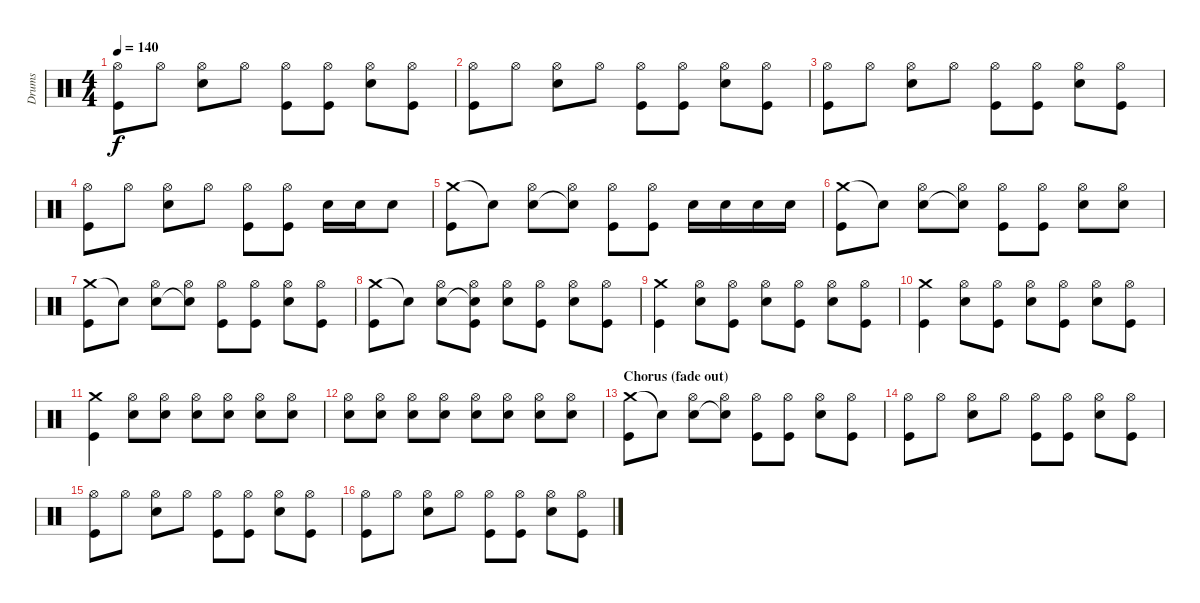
\track ("Drums" "Drums") {instrument percussion}
\staff {score}
\articulation defaults
\ts (4 4)
\tempo 140
\clef neutral
\ks c
("Hi-Hat (open)" "Kick (hit)").8{dy f} "Hi-Hat (open)".8 ("Hi-Hat (open)" "Snare (hit) 2").8 "Hi-Hat (open)".8 ("Hi-Hat (open)" "Kick (hit)").8 ("Hi-Hat (open)" "Kick (hit)").8 ("Hi-Hat (open)" "Snare (hit) 2").8 ("Hi-Hat (open)" "Kick (hit)").8 |
("Hi-Hat (open)" "Kick (hit)").8 "Hi-Hat (open)".8 ("Hi-Hat (open)" "Snare (hit) 2").8 "Hi-Hat (open)".8 ("Hi-Hat (open)" "Kick (hit)").8 ("Hi-Hat (open)" "Kick (hit)").8 ("Hi-Hat (open)" "Snare (hit) 2").8 ("Hi-Hat (open)" "Kick (hit)").8 |
("Hi-Hat (open)" "Kick (hit)").8 "Hi-Hat (open)".8 ("Hi-Hat (open)" "Snare (hit) 2").8 "Hi-Hat (open)".8 ("Hi-Hat (open)" "Kick (hit)").8 ("Hi-Hat (open)" "Kick (hit)").8 ("Hi-Hat (open)" "Snare (hit) 2").8 ("Hi-Hat (open)" "Kick (hit)").8 |
("Hi-Hat (open)" "Kick (hit)").8 "Hi-Hat (open)".8 ("Hi-Hat (open)" "Snare (hit) 2").8 "Hi-Hat (open)".8 ("Hi-Hat (open)" "Kick (hit)").8 ("Hi-Hat (open)" "Kick (hit)").8 "Snare (hit) 2".16 "Snare (hit) 2".16 "Snare (hit) 2".8 |
("Crash medium (hit)" "Kick (hit)").8 "Snare (hit)"{t}.8 ("Hi-Hat (open)" "Snare (hit) 2").8 ("Hi-Hat (open)" "Snare (hit)"{t}).8 ("Hi-Hat (open)" "Kick (hit)").8 ("Hi-Hat (open)" "Kick (hit)").8 "Snare (hit) 2".16 "Snare (hit) 2".16 "Snare (hit) 2".16 "Snare (hit) 2".16 |
("Crash medium (hit)" "Kick (hit)").8 "Snare (hit)"{t}.8 ("Hi-Hat (open)" "Snare (hit) 2").8 ("Hi-Hat (open)" "Snare (hit)"{t}).8 ("Hi-Hat (open)" "Kick (hit)").8 ("Hi-Hat (open)" "Kick (hit)").8 ("Hi-Hat (open)" "Snare (hit) 2").8 ("Hi-Hat (open)" "Snare (hit) 2").8 |
("Crash medium (hit)" "Kick (hit)").8 "Snare (hit)"{t}.8 ("Hi-Hat (open)" "Snare (hit) 2").8 ("Hi-Hat (open)" "Snare (hit)"{t}).8 ("Hi-Hat (open)" "Kick (hit)").8 ("Hi-Hat (open)" "Kick (hit)").8 ("Hi-Hat (open)" "Snare (hit) 2").8 ("Hi-Hat (open)" "Kick (hit)").8 |
("Crash medium (hit)" "Kick (hit)").8 "Snare (hit)"{t}.8 ("Hi-Hat (open)" "Snare (hit) 2").8 ("Hi-Hat (open)" "Snare (hit)"{t} "Kick (hit)").8 ("Hi-Hat (open)" "Snare (hit) 2").8 ("Hi-Hat (open)" "Kick (hit)").8 ("Hi-Hat (open)" "Snare (hit) 2").8 ("Hi-Hat (open)" "Kick (hit)").8 |
("Crash medium (hit)" "Kick (hit)").4 ("Hi-Hat (open)" "Snare (hit) 2").8 ("Hi-Hat (open)" "Kick (hit)").8 ("Hi-Hat (open)" "Snare (hit) 2").8 ("Hi-Hat (open)" "Kick (hit)").8 ("Hi-Hat (open)" "Snare (hit) 2").8 ("Hi-Hat (open)" "Kick (hit)").8 |
("Crash medium (hit)" "Kick (hit)").4 ("Hi-Hat (open)" "Snare (hit) 2").8 ("Hi-Hat (open)" "Kick (hit)").8 ("Hi-Hat (open)" "Snare (hit) 2").8 ("Hi-Hat (open)" "Kick (hit)").8 ("Hi-Hat (open)" "Snare (hit) 2").8 ("Hi-Hat (open)" "Kick (hit)").8 |
("Crash medium (hit)" "Kick (hit)").4 ("Hi-Hat (open)" "Snare (hit) 2").8 ("Hi-Hat (open)" "Snare (hit) 2").8 ("Hi-Hat (open)" "Snare (hit) 2").8 ("Hi-Hat (open)" "Snare (hit) 2").8 ("Hi-Hat (open)" "Snare (hit) 2").8 ("Hi-Hat (open)" "Snare (hit) 2").8 |
("Hi-Hat (open)" "Snare (hit) 2").8 ("Hi-Hat (open)" "Snare (hit) 2").8 ("Hi-Hat (open)" "Snare (hit) 2").8 ("Hi-Hat (open)" "Snare (hit) 2").8 ("Hi-Hat (open)" "Snare (hit) 2").8 ("Hi-Hat (open)" "Snare (hit) 2").8 ("Hi-Hat (open)" "Snare (hit) 2").8 ("Hi-Hat (open)" "Snare (hit) 2").8 |
\section ("" "Chorus (fade out)")
("Crash medium (hit)" "Kick (hit)").8 "Snare (hit)"{t}.8 ("Hi-Hat (open)" "Snare (hit) 2").8 ("Hi-Hat (open)" "Snare (hit)"{t}).8 ("Hi-Hat (open)" "Kick (hit)").8 ("Hi-Hat (open)" "Kick (hit)").8 ("Hi-Hat (open)" "Snare (hit) 2").8 ("Hi-Hat (open)" "Kick (hit)").8 |
("Hi-Hat (open)" "Kick (hit)").8 "Hi-Hat (open)".8 ("Hi-Hat (open)" "Snare (hit) 2").8 "Hi-Hat (open)".8 ("Hi-Hat (open)" "Kick (hit)").8 ("Hi-Hat (open)" "Kick (hit)").8 ("Hi-Hat (open)" "Snare (hit) 2").8 ("Hi-Hat (open)" "Kick (hit)").8 |
("Hi-Hat (open)" "Kick (hit)").8 "Hi-Hat (open)".8 ("Hi-Hat (open)" "Snare (hit) 2").8 "Hi-Hat (open)".8 ("Hi-Hat (open)" "Kick (hit)").8 ("Hi-Hat (open)" "Kick (hit)").8 ("Hi-Hat (open)" "Snare (hit) 2").8 ("Hi-Hat (open)" "Kick (hit)").8 |
("Hi-Hat (open)" "Kick (hit)").8 "Hi-Hat (open)".8 ("Hi-Hat (open)" "Snare (hit) 2").8 "Hi-Hat (open)".8 ("Hi-Hat (open)" "Kick (hit)").8 ("Hi-Hat (open)" "Kick (hit)").8 ("Hi-Hat (open)" "Snare (hit) 2").8 ("Hi-Hat (open)" "Kick (hit)").8
